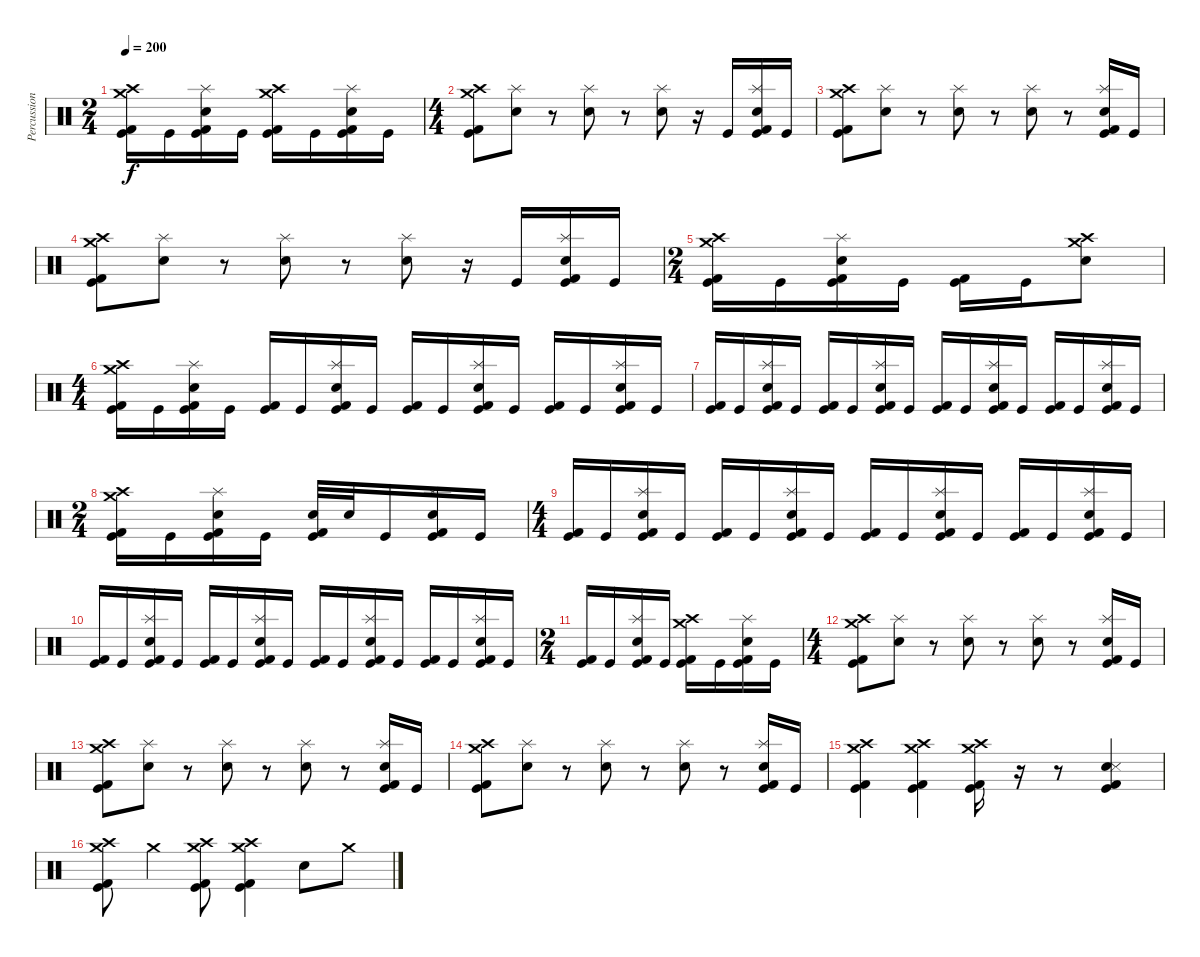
\track ("Percussion" "Percussion") {instrument percussion}
\staff {score}
\articulation defaults
\ts (2 4)
\tempo 200
\clef neutral
\ks c
("Crash high (hit)" "Crash medium (hit)" "Kick (hit) 2" "Kick (hit)").16{dy f} "Kick (hit)".16 ("Splash (hit)" "Snare (hit) 2" "Kick (hit) 2" "Kick (hit)").16 "Kick (hit)".16 ("Crash high (hit)" "Crash medium (hit)" "Kick (hit) 2" "Kick (hit)").16 "Kick (hit)".16 ("Splash (hit)" "Snare (hit) 2" "Kick (hit) 2" "Kick (hit)").16 "Kick (hit)".16 |
\ts (4 4)
("Crash high (hit)" "Crash medium (hit)" "Kick (hit) 2" "Kick (hit)").8 ("Splash (hit)" "Snare (hit) 2").8 r.8 ("Splash (hit)" "Snare (hit) 2").8 r.8 ("Splash (hit)" "Snare (hit) 2").8 r.16 "Kick (hit)".16 ("Splash (hit)" "Snare (hit) 2" "Kick (hit) 2" "Kick (hit)").16 "Kick (hit)".16 |
("Crash high (hit)" "Crash medium (hit)" "Kick (hit) 2" "Kick (hit)").8 ("Splash (hit)" "Snare (hit) 2").8 r.8 ("Splash (hit)" "Snare (hit) 2").8 r.8 ("Splash (hit)" "Snare (hit) 2").8 r.8 ("Splash (hit)" "Snare (hit) 2" "Kick (hit) 2" "Kick (hit)").16 "Kick (hit)".16 |
("Crash high (hit)" "Crash medium (hit)" "Kick (hit) 2" "Kick (hit)").8 ("Splash (hit)" "Snare (hit) 2").8 r.8 ("Splash (hit)" "Snare (hit) 2").8 r.8 ("Splash (hit)" "Snare (hit) 2").8 r.16 "Kick (hit)".16 ("Splash (hit)" "Snare (hit) 2" "Kick (hit) 2" "Kick (hit)").16 "Kick (hit)".16 |
\ts (2 4)
("Crash high (hit)" "Crash medium (hit)" "Kick (hit) 2" "Kick (hit)").16 "Kick (hit)".16 ("Splash (hit)" "Snare (hit) 2" "Kick (hit) 2" "Kick (hit)").16 "Kick (hit)".16 ("Kick (hit) 2" "Kick (hit)").16 "Kick (hit)".16 ("Crash high (hit)" "Crash medium (hit)" "Snare (hit) 2").8 |
\ts (4 4)
("Crash high (hit)" "Crash medium (hit)" "Kick (hit) 2" "Kick (hit)").16 "Kick (hit)".16 ("Splash (hit)" "Snare (hit) 2" "Kick (hit) 2" "Kick (hit)").16 "Kick (hit)".16 ("Kick (hit) 2" "Kick (hit)").16 "Kick (hit)".16 ("Splash (hit)" "Snare (hit) 2" "Kick (hit) 2" "Kick (hit)").16 "Kick (hit)".16 ("Kick (hit) 2" "Kick (hit)").16 "Kick (hit)".16 ("Splash (hit)" "Snare (hit) 2" "Kick (hit) 2" "Kick (hit)").16 "Kick (hit)".16 ("Kick (hit) 2" "Kick (hit)").16 "Kick (hit)".16 ("Splash (hit)" "Snare (hit) 2" "Kick (hit) 2" "Kick (hit)").16 "Kick (hit)".16 |
("Kick (hit) 2" "Kick (hit)").16 "Kick (hit)".16 ("Splash (hit)" "Snare (hit) 2" "Kick (hit) 2" "Kick (hit)").16 "Kick (hit)".16 ("Kick (hit) 2" "Kick (hit)").16 "Kick (hit)".16 ("Splash (hit)" "Snare (hit) 2" "Kick (hit) 2" "Kick (hit)").16 "Kick (hit)".16 ("Kick (hit) 2" "Kick (hit)").16 "Kick (hit)".16 ("Splash (hit)" "Snare (hit) 2" "Kick (hit) 2" "Kick (hit)").16 "Kick (hit)".16 ("Kick (hit) 2" "Kick (hit)").16 "Kick (hit)".16 ("Splash (hit)" "Snare (hit) 2" "Kick (hit) 2" "Kick (hit)").16 "Kick (hit)".16 |
\ts (2 4)
("Crash high (hit)" "Crash medium (hit)" "Kick (hit) 2" "Kick (hit)").16 "Kick (hit)".16 ("Splash (hit)" "Snare (hit) 2" "Kick (hit) 2" "Kick (hit)").16 "Kick (hit)".16 ("Snare (hit) 2" "Kick (hit) 2" "Kick (hit)").32 "Snare (hit) 2".32 "Kick (hit)".16 ("Splash (hit)" "Snare (hit) 2" "Kick (hit) 2" "Kick (hit)").16 "Kick (hit)".16 |
\ts (4 4)
("Kick (hit) 2" "Kick (hit)").16 "Kick (hit)".16 ("Splash (hit)" "Snare (hit) 2" "Kick (hit) 2" "Kick (hit)").16 "Kick (hit)".16 ("Kick (hit) 2" "Kick (hit)").16 "Kick (hit)".16 ("Splash (hit)" "Snare (hit) 2" "Kick (hit) 2" "Kick (hit)").16 "Kick (hit)".16 ("Kick (hit) 2" "Kick (hit)").16 "Kick (hit)".16 ("Splash (hit)" "Snare (hit) 2" "Kick (hit) 2" "Kick (hit)").16 "Kick (hit)".16 ("Kick (hit) 2" "Kick (hit)").16 "Kick (hit)".16 ("Splash (hit)" "Snare (hit) 2" "Kick (hit) 2" "Kick (hit)").16 "Kick (hit)".16 |
("Kick (hit) 2" "Kick (hit)").16 "Kick (hit)".16 ("Splash (hit)" "Snare (hit) 2" "Kick (hit) 2" "Kick (hit)").16 "Kick (hit)".16 ("Kick (hit) 2" "Kick (hit)").16 "Kick (hit)".16 ("Splash (hit)" "Snare (hit) 2" "Kick (hit) 2" "Kick (hit)").16 "Kick (hit)".16 ("Kick (hit) 2" "Kick (hit)").16 "Kick (hit)".16 ("Splash (hit)" "Snare (hit) 2" "Kick (hit) 2" "Kick (hit)").16 "Kick (hit)".16 ("Kick (hit) 2" "Kick (hit)").16 "Kick (hit)".16 ("Splash (hit)" "Snare (hit) 2" "Kick (hit) 2" "Kick (hit)").16 "Kick (hit)".16 |
\ts (2 4)
("Kick (hit) 2" "Kick (hit)").16 "Kick (hit)".16 ("Splash (hit)" "Snare (hit) 2" "Kick (hit) 2" "Kick (hit)").16 "Kick (hit)".16 ("Crash high (hit)" "Crash medium (hit)" "Kick (hit) 2" "Kick (hit)").16 "Kick (hit)".16 ("Splash (hit)" "Snare (hit) 2" "Kick (hit) 2" "Kick (hit)").16 "Kick (hit)".16 |
\ts (4 4)
("Crash high (hit)" "Crash medium (hit)" "Kick (hit) 2" "Kick (hit)").8 ("Splash (hit)" "Snare (hit) 2").8 r.8 ("Splash (hit)" "Snare (hit) 2").8 r.8 ("Splash (hit)" "Snare (hit) 2").8 r.8 ("Splash (hit)" "Snare (hit) 2" "Kick (hit) 2" "Kick (hit)").16 "Kick (hit)".16 |
("Crash high (hit)" "Crash medium (hit)" "Kick (hit) 2" "Kick (hit)").8 ("Splash (hit)" "Snare (hit) 2").8 r.8 ("Splash (hit)" "Snare (hit) 2").8 r.8 ("Splash (hit)" "Snare (hit) 2").8 r.8 ("Splash (hit)" "Snare (hit) 2" "Kick (hit) 2" "Kick (hit)").16 "Kick (hit)".16 |
("Crash high (hit)" "Crash medium (hit)" "Kick (hit) 2" "Kick (hit)").8 ("Splash (hit)" "Snare (hit) 2").8 r.8 ("Splash (hit)" "Snare (hit) 2").8 r.8 ("Splash (hit)" "Snare (hit) 2").8 r.8 ("Splash (hit)" "Snare (hit) 2" "Kick (hit) 2" "Kick (hit)").16 "Kick (hit)".16 |
("Crash high (hit)" "Crash medium (hit)" "Kick (hit) 2" "Kick (hit)").4 ("Crash high (hit)" "Crash medium (hit)" "Kick (hit) 2" "Kick (hit)").4 ("Crash high (hit)" "Crash medium (hit)" "Kick (hit) 2" "Kick (hit)").16 r.16 r.8 ("Snare (hit) 2" "Snare (side stick) 3" "Kick (hit) 2" "Kick (hit)").4 |
("Crash high (hit)" "Crash medium (hit)" "Kick (hit) 2" "Kick (hit)").8 "Crash medium (hit)".4 ("Crash high (hit)" "Crash medium (hit)" "Kick (hit) 2" "Kick (hit)").8 ("Crash high (hit)" "Crash medium (hit)" "Kick (hit) 2" "Kick (hit)").4 "Snare (hit) 2".8 "Crash medium (hit)".8
